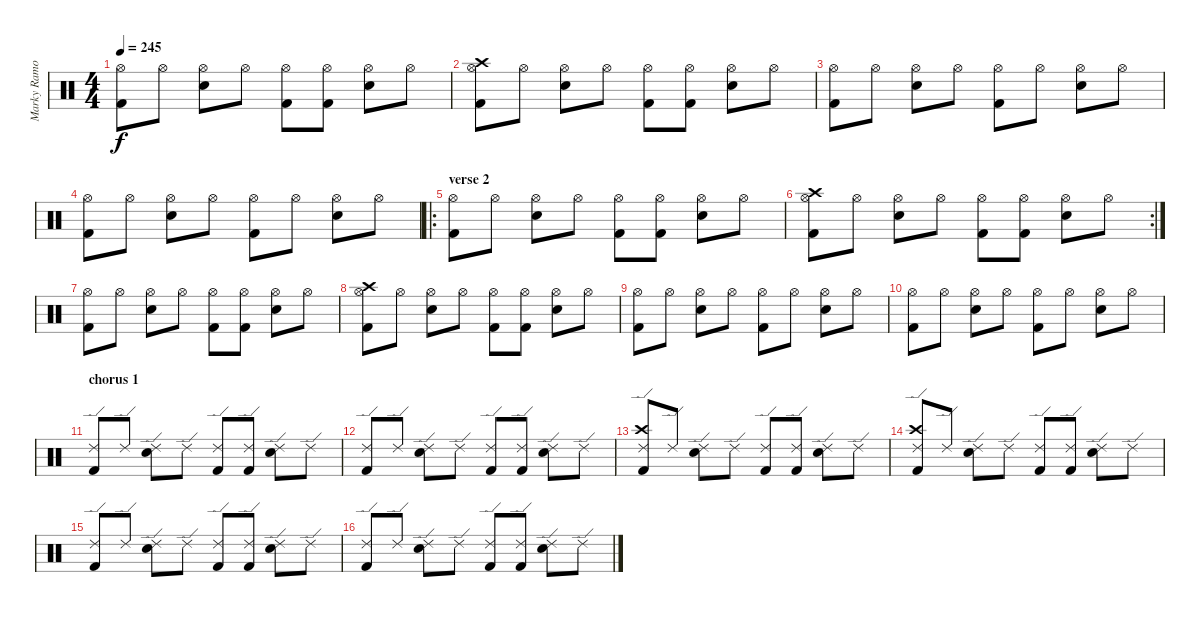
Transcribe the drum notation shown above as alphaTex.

\track ("Marky Ramone" "Marky Ramo") {instrument percussion}
\staff {score}
\articulation defaults
\ts (4 4)
\tempo 245
\clef neutral
\ks c
("Kick (hit) 2" "Hi-Hat (open)").8{dy f} "Hi-Hat (open)".8 ("Electric Snare (hit)" "Hi-Hat (open)").8 "Hi-Hat (open)".8 ("Kick (hit) 2" "Hi-Hat (open)").8 ("Kick (hit) 2" "Hi-Hat (open)").8 ("Electric Snare (hit)" "Hi-Hat (open)").8 "Hi-Hat (open)".8 |
("Crash high (hit)" "Kick (hit) 2" "Hi-Hat (open)").8 "Hi-Hat (open)".8 ("Electric Snare (hit)" "Hi-Hat (open)").8 "Hi-Hat (open)".8 ("Kick (hit) 2" "Hi-Hat (open)").8 ("Kick (hit) 2" "Hi-Hat (open)").8 ("Electric Snare (hit)" "Hi-Hat (open)").8 "Hi-Hat (open)".8 |
("Kick (hit) 2" "Hi-Hat (open)").8 "Hi-Hat (open)".8 ("Electric Snare (hit)" "Hi-Hat (open)").8 "Hi-Hat (open)".8 ("Kick (hit) 2" "Hi-Hat (open)").8 "Hi-Hat (open)".8 ("Electric Snare (hit)" "Hi-Hat (open)").8 "Hi-Hat (open)".8 |
("Kick (hit) 2" "Hi-Hat (open)").8 "Hi-Hat (open)".8 ("Electric Snare (hit)" "Hi-Hat (open)").8 "Hi-Hat (open)".8 ("Kick (hit) 2" "Hi-Hat (open)").8 "Hi-Hat (open)".8 ("Electric Snare (hit)" "Hi-Hat (open)").8 "Hi-Hat (open)".8 |
\ro
\section ("" "verse 2")
("Kick (hit) 2" "Hi-Hat (open)").8 "Hi-Hat (open)".8 ("Electric Snare (hit)" "Hi-Hat (open)").8 "Hi-Hat (open)".8 ("Kick (hit) 2" "Hi-Hat (open)").8 ("Kick (hit) 2" "Hi-Hat (open)").8 ("Electric Snare (hit)" "Hi-Hat (open)").8 "Hi-Hat (open)".8 |
\rc 2
("Crash high (hit)" "Kick (hit) 2" "Hi-Hat (open)").8 "Hi-Hat (open)".8 ("Electric Snare (hit)" "Hi-Hat (open)").8 "Hi-Hat (open)".8 ("Kick (hit) 2" "Hi-Hat (open)").8 ("Kick (hit) 2" "Hi-Hat (open)").8 ("Electric Snare (hit)" "Hi-Hat (open)").8 "Hi-Hat (open)".8 |
("Kick (hit) 2" "Hi-Hat (open)").8 "Hi-Hat (open)".8 ("Electric Snare (hit)" "Hi-Hat (open)").8 "Hi-Hat (open)".8 ("Kick (hit) 2" "Hi-Hat (open)").8 ("Kick (hit) 2" "Hi-Hat (open)").8 ("Electric Snare (hit)" "Hi-Hat (open)").8 "Hi-Hat (open)".8 |
("Crash high (hit)" "Kick (hit) 2" "Hi-Hat (open)").8 "Hi-Hat (open)".8 ("Electric Snare (hit)" "Hi-Hat (open)").8 "Hi-Hat (open)".8 ("Kick (hit) 2" "Hi-Hat (open)").8 ("Kick (hit) 2" "Hi-Hat (open)").8 ("Electric Snare (hit)" "Hi-Hat (open)").8 "Hi-Hat (open)".8 |
("Kick (hit) 2" "Hi-Hat (open)").8 "Hi-Hat (open)".8 ("Electric Snare (hit)" "Hi-Hat (open)").8 "Hi-Hat (open)".8 ("Kick (hit) 2" "Hi-Hat (open)").8 "Hi-Hat (open)".8 ("Electric Snare (hit)" "Hi-Hat (open)").8 "Hi-Hat (open)".8 |
("Kick (hit) 2" "Hi-Hat (open)").8 "Hi-Hat (open)".8 ("Electric Snare (hit)" "Hi-Hat (open)").8 "Hi-Hat (open)".8 ("Kick (hit) 2" "Hi-Hat (open)").8 "Hi-Hat (open)".8 ("Electric Snare (hit)" "Hi-Hat (open)").8 "Hi-Hat (open)".8 |
\section ("" "chorus 1")
("Kick (hit) 2" "Ride (edge) 2").8 "Ride (edge) 2".8 ("Electric Snare (hit)" "Ride (edge) 2").8 "Ride (edge) 2".8 ("Kick (hit) 2" "Ride (edge) 2").8 ("Kick (hit) 2" "Ride (edge) 2").8 ("Electric Snare (hit)" "Ride (edge) 2").8 "Ride (edge) 2".8 |
("Kick (hit) 2" "Ride (edge) 2").8 "Ride (edge) 2".8 ("Electric Snare (hit)" "Ride (edge) 2").8 "Ride (edge) 2".8 ("Kick (hit) 2" "Ride (edge) 2").8 ("Kick (hit) 2" "Ride (edge) 2").8 ("Electric Snare (hit)" "Ride (edge) 2").8 "Ride (edge) 2".8 |
("Crash high (hit)" "Kick (hit) 2" "Ride (edge) 2").8 "Ride (edge) 2".8 ("Electric Snare (hit)" "Ride (edge) 2").8 "Ride (edge) 2".8 ("Kick (hit) 2" "Ride (edge) 2").8 ("Kick (hit) 2" "Ride (edge) 2").8 ("Electric Snare (hit)" "Ride (edge) 2").8 "Ride (edge) 2".8 |
("Crash high (hit)" "Kick (hit) 2" "Ride (edge) 2").8 "Ride (edge) 2".8 ("Electric Snare (hit)" "Ride (edge) 2").8 "Ride (edge) 2".8 ("Kick (hit) 2" "Ride (edge) 2").8 ("Kick (hit) 2" "Ride (edge) 2").8 ("Electric Snare (hit)" "Ride (edge) 2").8 "Ride (edge) 2".8 |
("Kick (hit) 2" "Ride (edge) 2").8 "Ride (edge) 2".8 ("Electric Snare (hit)" "Ride (edge) 2").8 "Ride (edge) 2".8 ("Kick (hit) 2" "Ride (edge) 2").8 ("Kick (hit) 2" "Ride (edge) 2").8 ("Electric Snare (hit)" "Ride (edge) 2").8 "Ride (edge) 2".8 |
("Kick (hit) 2" "Ride (edge) 2").8 "Ride (edge) 2".8 ("Electric Snare (hit)" "Ride (edge) 2").8 "Ride (edge) 2".8 ("Kick (hit) 2" "Ride (edge) 2").8 ("Kick (hit) 2" "Ride (edge) 2").8 ("Electric Snare (hit)" "Ride (edge) 2").8 "Ride (edge) 2".8
